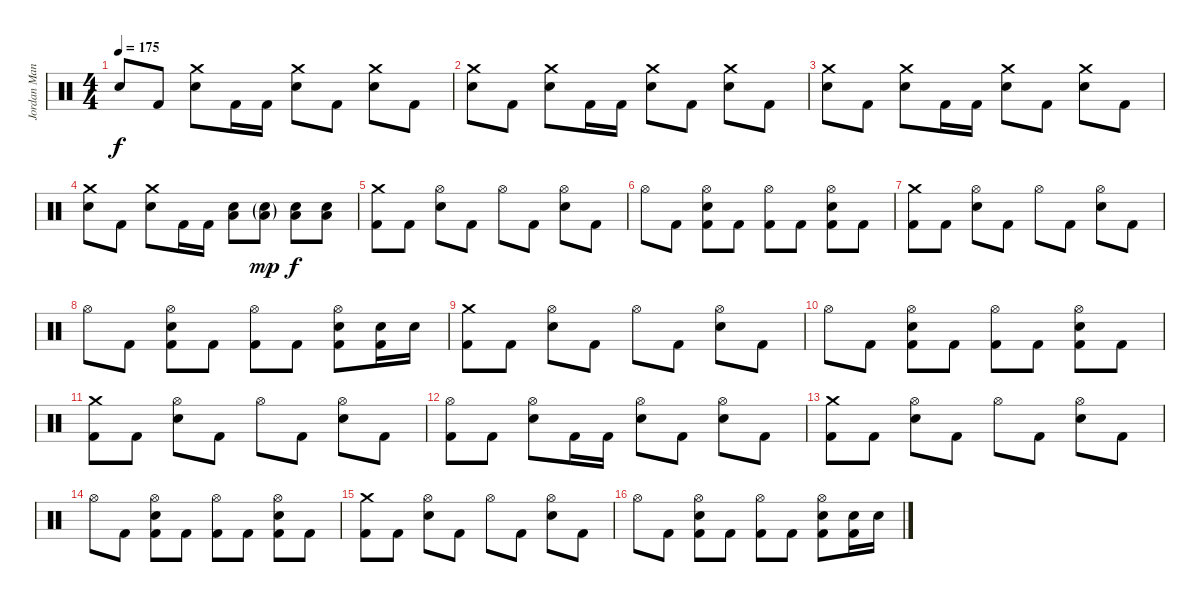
\track ("Jordan Mancino" "Jordan Man") {instrument percussion}
\staff {score}
\articulation defaults
\ts (4 4)
\tempo 175
\clef neutral
\ks c "Snare (hit)"{t}.8{dy f} "Kick (hit) 2".8
("Crash medium (hit)" "Electric Snare (hit)").8 "Kick (hit) 2".16 "Kick (hit) 2".16 ("Crash medium (hit)" "Electric Snare (hit)").8 "Kick (hit) 2".8 ("Crash medium (hit)" "Electric Snare (hit)").8 "Kick (hit) 2".8 |
("Crash medium (hit)" "Electric Snare (hit)").8 "Kick (hit) 2".8 ("Crash medium (hit)" "Electric Snare (hit)").8 "Kick (hit) 2".16 "Kick (hit) 2".16 ("Crash medium (hit)" "Electric Snare (hit)").8 "Kick (hit) 2".8 ("Crash medium (hit)" "Electric Snare (hit)").8 "Kick (hit) 2".8 |
("Crash medium (hit)" "Electric Snare (hit)").8 "Kick (hit) 2".8 ("Crash medium (hit)" "Electric Snare (hit)").8 "Kick (hit) 2".16 "Kick (hit) 2".16 ("Crash medium (hit)" "Electric Snare (hit)").8 "Kick (hit) 2".8 ("Crash medium (hit)" "Electric Snare (hit)").8 "Kick (hit) 2".8 |
("Crash medium (hit)" "Electric Snare (hit)").8 "Kick (hit) 2".8 ("Crash medium (hit)" "Electric Snare (hit)").8 "Kick (hit) 2".16 "Kick (hit) 2".16 ("Electric Snare (hit)" "Low Floor Tom (hit)").8 ("Electric Snare (hit)"{g} "Low Floor Tom (hit)"{g}).8{dy mp} ("Electric Snare (hit)" "Low Floor Tom (hit)").8{dy f} ("Electric Snare (hit)" "Low Floor Tom (hit)").8 |
("Crash medium (hit)" "Kick (hit) 2").8 "Kick (hit) 2".8 ("Hi-Hat (open)" "Electric Snare (hit)").8 "Kick (hit) 2".8 "Hi-Hat (open)".8 "Kick (hit) 2".8 ("Hi-Hat (open)" "Electric Snare (hit)").8 "Kick (hit) 2".8 |
"Hi-Hat (open)".8 "Kick (hit) 2".8 ("Hi-Hat (open)" "Electric Snare (hit)" "Kick (hit) 2").8 "Kick (hit) 2".8 ("Hi-Hat (open)" "Kick (hit) 2").8 "Kick (hit) 2".8 ("Hi-Hat (open)" "Electric Snare (hit)" "Kick (hit) 2").8 "Kick (hit) 2".8 |
("Crash medium (hit)" "Kick (hit) 2").8 "Kick (hit) 2".8 ("Hi-Hat (open)" "Electric Snare (hit)").8 "Kick (hit) 2".8 "Hi-Hat (open)".8 "Kick (hit) 2".8 ("Hi-Hat (open)" "Electric Snare (hit)").8 "Kick (hit) 2".8 |
"Hi-Hat (open)".8 "Kick (hit) 2".8 ("Hi-Hat (open)" "Electric Snare (hit)" "Kick (hit) 2").8 "Kick (hit) 2".8 ("Hi-Hat (open)" "Kick (hit) 2").8 "Kick (hit) 2".8 ("Hi-Hat (open)" "Electric Snare (hit)" "Kick (hit) 2").8 ("Electric Snare (hit)" "Kick (hit) 2").16 "Electric Snare (hit)".16 |
("Crash medium (hit)" "Kick (hit) 2").8 "Kick (hit) 2".8 ("Hi-Hat (open)" "Electric Snare (hit)").8 "Kick (hit) 2".8 "Hi-Hat (open)".8 "Kick (hit) 2".8 ("Hi-Hat (open)" "Electric Snare (hit)").8 "Kick (hit) 2".8 |
"Hi-Hat (open)".8 "Kick (hit) 2".8 ("Hi-Hat (open)" "Electric Snare (hit)" "Kick (hit) 2").8 "Kick (hit) 2".8 ("Hi-Hat (open)" "Kick (hit) 2").8 "Kick (hit) 2".8 ("Hi-Hat (open)" "Electric Snare (hit)" "Kick (hit) 2").8 "Kick (hit) 2".8 |
("Crash medium (hit)" "Kick (hit) 2").8 "Kick (hit) 2".8 ("Hi-Hat (open)" "Electric Snare (hit)").8 "Kick (hit) 2".8 "Hi-Hat (open)".8 "Kick (hit) 2".8 ("Hi-Hat (open)" "Electric Snare (hit)").8 "Kick (hit) 2".8 |
("Hi-Hat (open)" "Kick (hit) 2").8 "Kick (hit) 2".8 ("Hi-Hat (open)" "Electric Snare (hit)").8 "Kick (hit) 2".16 "Kick (hit) 2".16 ("Hi-Hat (open)" "Electric Snare (hit)").8 "Kick (hit) 2".8 ("Hi-Hat (open)" "Electric Snare (hit)").8 "Kick (hit) 2".8 |
("Crash medium (hit)" "Kick (hit) 2").8 "Kick (hit) 2".8 ("Hi-Hat (open)" "Electric Snare (hit)").8 "Kick (hit) 2".8 "Hi-Hat (open)".8 "Kick (hit) 2".8 ("Hi-Hat (open)" "Electric Snare (hit)").8 "Kick (hit) 2".8 |
"Hi-Hat (open)".8 "Kick (hit) 2".8 ("Hi-Hat (open)" "Electric Snare (hit)" "Kick (hit) 2").8 "Kick (hit) 2".8 ("Hi-Hat (open)" "Kick (hit) 2").8 "Kick (hit) 2".8 ("Hi-Hat (open)" "Electric Snare (hit)" "Kick (hit) 2").8 "Kick (hit) 2".8 |
("Crash medium (hit)" "Kick (hit) 2").8 "Kick (hit) 2".8 ("Hi-Hat (open)" "Electric Snare (hit)").8 "Kick (hit) 2".8 "Hi-Hat (open)".8 "Kick (hit) 2".8 ("Hi-Hat (open)" "Electric Snare (hit)").8 "Kick (hit) 2".8 |
"Hi-Hat (open)".8 "Kick (hit) 2".8 ("Hi-Hat (open)" "Electric Snare (hit)" "Kick (hit) 2").8 "Kick (hit) 2".8 ("Hi-Hat (open)" "Kick (hit) 2").8 "Kick (hit) 2".8 ("Hi-Hat (open)" "Electric Snare (hit)" "Kick (hit) 2").8 ("Electric Snare (hit)" "Kick (hit) 2").16 "Electric Snare (hit)".16
